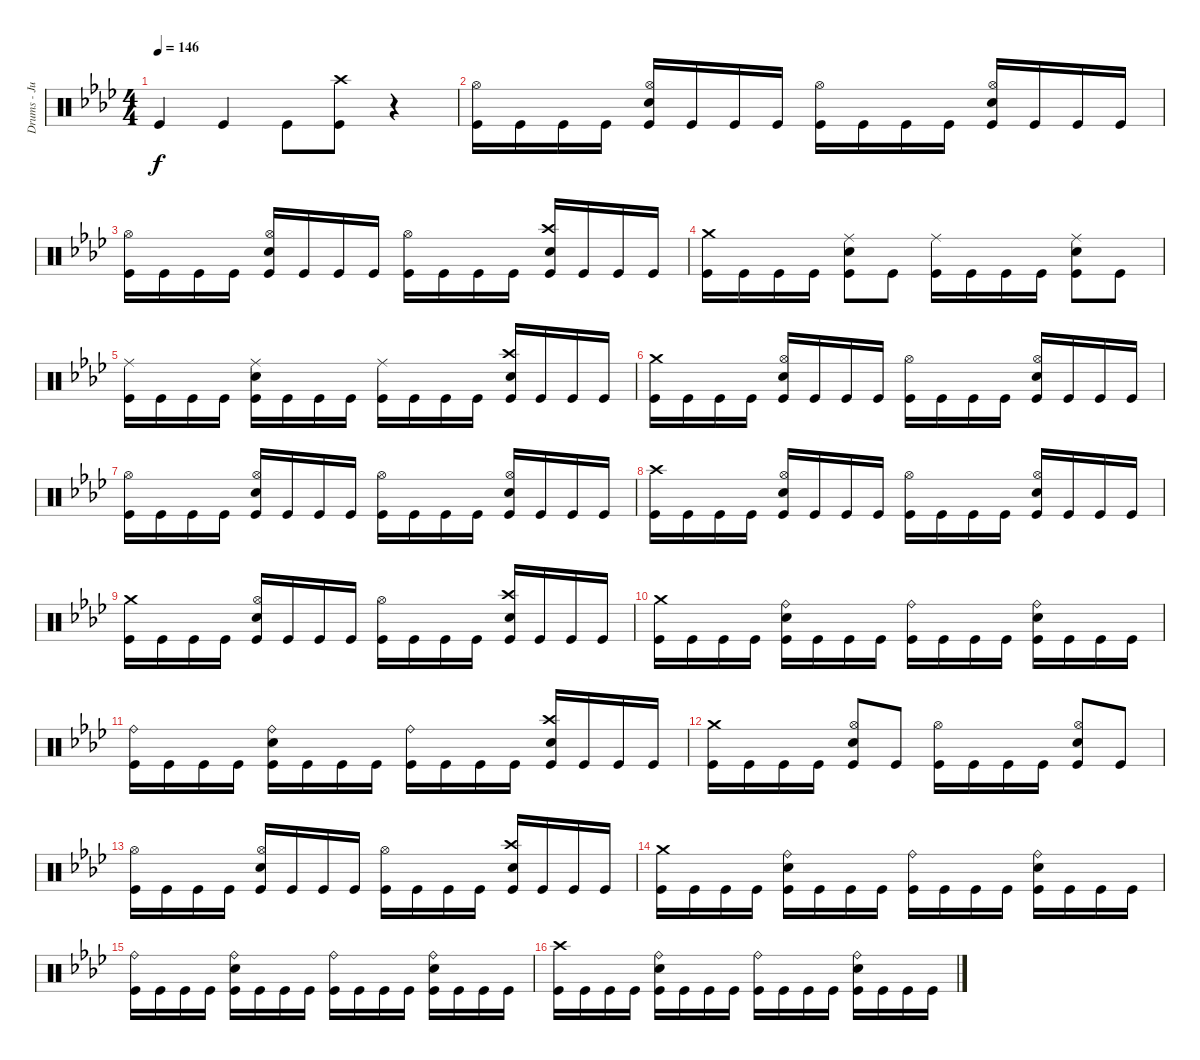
\track ("Drums - Jukka" "Drums - Ju") {instrument percussion}
\staff {score}
\articulation defaults
\ts (4 4)
\tempo 146
\clef neutral
\ks fminor "Kick (hit)".4{dy f} "Kick (hit)".4 "Kick (hit)".8
("Kick (hit)" "Crash high (hit)").8 r.4 |
("Kick (hit)" "Hi-Hat (open)").16 "Kick (hit)".16 "Kick (hit)".16 "Kick (hit)".16 ("Kick (hit)" "Snare (hit) 2" "Hi-Hat (open)").16 "Kick (hit)".16 "Kick (hit)".16 "Kick (hit)".16 ("Kick (hit)" "Hi-Hat (open)").16 "Kick (hit)".16 "Kick (hit)".16 "Kick (hit)".16 ("Kick (hit)" "Snare (hit) 2" "Hi-Hat (open)").16 "Kick (hit)".16 "Kick (hit)".16 "Kick (hit)".16 |
("Kick (hit)" "Hi-Hat (open)").16 "Kick (hit)".16 "Kick (hit)".16 "Kick (hit)".16 ("Kick (hit)" "Snare (hit) 2" "Hi-Hat (open)").16 "Kick (hit)".16 "Kick (hit)".16 "Kick (hit)".16 ("Kick (hit)" "Hi-Hat (open)").16 "Kick (hit)".16 "Kick (hit)".16 "Kick (hit)".16 ("Kick (hit)" "Snare (hit) 2" "Crash high (hit)").16 "Kick (hit)".16 "Kick (hit)".16 "Kick (hit)".16 |
("Kick (hit)" "Crash medium (hit)").16 "Kick (hit)".16 "Kick (hit)".16 "Kick (hit)".16 ("Kick (hit)" "Snare (hit) 2" "Ride (middle)").8 "Kick (hit)".8 ("Kick (hit)" "Ride (middle)").16 "Kick (hit)".16 "Kick (hit)".16 "Kick (hit)".16 ("Kick (hit)" "Snare (hit) 2" "Ride (middle)").8 "Kick (hit)".8 |
("Kick (hit)" "Ride (middle)").16 "Kick (hit)".16 "Kick (hit)".16 "Kick (hit)".16 ("Kick (hit)" "Snare (hit) 2" "Ride (middle)").16 "Kick (hit)".16 "Kick (hit)".16 "Kick (hit)".16 ("Kick (hit)" "Ride (middle)").16 "Kick (hit)".16 "Kick (hit)".16 "Kick (hit)".16 ("Kick (hit)" "Snare (hit) 2" "Crash high (hit)").16 "Kick (hit)".16 "Kick (hit)".16 "Kick (hit)".16 |
("Kick (hit)" "Crash medium (hit)").16 "Kick (hit)".16 "Kick (hit)".16 "Kick (hit)".16 ("Kick (hit)" "Snare (hit) 2" "Hi-Hat (open)").16 "Kick (hit)".16 "Kick (hit)".16 "Kick (hit)".16 ("Kick (hit)" "Hi-Hat (open)").16 "Kick (hit)".16 "Kick (hit)".16 "Kick (hit)".16 ("Kick (hit)" "Snare (hit) 2" "Hi-Hat (open)").16 "Kick (hit)".16 "Kick (hit)".16 "Kick (hit)".16 |
("Kick (hit)" "Hi-Hat (open)").16 "Kick (hit)".16 "Kick (hit)".16 "Kick (hit)".16 ("Kick (hit)" "Snare (hit) 2" "Hi-Hat (open)").16 "Kick (hit)".16 "Kick (hit)".16 "Kick (hit)".16 ("Kick (hit)" "Hi-Hat (open)").16 "Kick (hit)".16 "Kick (hit)".16 "Kick (hit)".16 ("Kick (hit)" "Snare (hit) 2" "Hi-Hat (open)").16 "Kick (hit)".16 "Kick (hit)".16 "Kick (hit)".16 |
("Kick (hit)" "Crash high (hit)").16 "Kick (hit)".16 "Kick (hit)".16 "Kick (hit)".16 ("Kick (hit)" "Snare (hit) 2" "Hi-Hat (open)").16 "Kick (hit)".16 "Kick (hit)".16 "Kick (hit)".16 ("Kick (hit)" "Hi-Hat (open)").16 "Kick (hit)".16 "Kick (hit)".16 "Kick (hit)".16 ("Kick (hit)" "Snare (hit) 2" "Hi-Hat (open)").16 "Kick (hit)".16 "Kick (hit)".16 "Kick (hit)".16 |
("Kick (hit)" "Crash medium (hit)").16 "Kick (hit)".16 "Kick (hit)".16 "Kick (hit)".16 ("Kick (hit)" "Snare (hit) 2" "Hi-Hat (open)").16 "Kick (hit)".16 "Kick (hit)".16 "Kick (hit)".16 ("Kick (hit)" "Hi-Hat (open)").16 "Kick (hit)".16 "Kick (hit)".16 "Kick (hit)".16 ("Kick (hit)" "Snare (hit) 2" "Crash high (hit)").16 "Kick (hit)".16 "Kick (hit)".16 "Kick (hit)".16 |
("Kick (hit)" "Crash medium (hit)").16 "Kick (hit)".16 "Kick (hit)".16 "Kick (hit)".16 ("Kick (hit)" "Snare (hit) 2" "Ride (bell)").16 "Kick (hit)".16 "Kick (hit)".16 "Kick (hit)".16 ("Kick (hit)" "Ride (bell)").16 "Kick (hit)".16 "Kick (hit)".16 "Kick (hit)".16 ("Kick (hit)" "Snare (hit) 2" "Ride (bell)").16 "Kick (hit)".16 "Kick (hit)".16 "Kick (hit)".16 |
("Kick (hit)" "Ride (bell)").16 "Kick (hit)".16 "Kick (hit)".16 "Kick (hit)".16 ("Kick (hit)" "Snare (hit) 2" "Ride (bell)").16 "Kick (hit)".16 "Kick (hit)".16 "Kick (hit)".16 ("Kick (hit)" "Ride (bell)").16 "Kick (hit)".16 "Kick (hit)".16 "Kick (hit)".16 ("Kick (hit)" "Snare (hit) 2" "Crash high (hit)").16 "Kick (hit)".16 "Kick (hit)".16 "Kick (hit)".16 |
("Kick (hit)" "Crash medium (hit)").16 "Kick (hit)".16 "Kick (hit)".16 "Kick (hit)".16 ("Kick (hit)" "Snare (hit) 2" "Hi-Hat (open)").8 "Kick (hit)".8 ("Kick (hit)" "Hi-Hat (open)").16 "Kick (hit)".16 "Kick (hit)".16 "Kick (hit)".16 ("Kick (hit)" "Snare (hit) 2" "Hi-Hat (open)").8 "Kick (hit)".8 |
("Kick (hit)" "Hi-Hat (open)").16 "Kick (hit)".16 "Kick (hit)".16 "Kick (hit)".16 ("Kick (hit)" "Snare (hit) 2" "Hi-Hat (open)").16 "Kick (hit)".16 "Kick (hit)".16 "Kick (hit)".16 ("Kick (hit)" "Hi-Hat (open)").16 "Kick (hit)".16 "Kick (hit)".16 "Kick (hit)".16 ("Kick (hit)" "Snare (hit) 2" "Crash high (hit)").16 "Kick (hit)".16 "Kick (hit)".16 "Kick (hit)".16 |
("Kick (hit)" "Crash medium (hit)").16 "Kick (hit)".16 "Kick (hit)".16 "Kick (hit)".16 ("Kick (hit)" "Snare (hit) 2" "Ride (bell)").16 "Kick (hit)".16 "Kick (hit)".16 "Kick (hit)".16 ("Kick (hit)" "Ride (bell)").16 "Kick (hit)".16 "Kick (hit)".16 "Kick (hit)".16 ("Kick (hit)" "Snare (hit) 2" "Ride (bell)").16 "Kick (hit)".16 "Kick (hit)".16 "Kick (hit)".16 |
("Kick (hit)" "Ride (bell)").16 "Kick (hit)".16 "Kick (hit)".16 "Kick (hit)".16 ("Kick (hit)" "Snare (hit) 2" "Ride (bell)").16 "Kick (hit)".16 "Kick (hit)".16 "Kick (hit)".16 ("Kick (hit)" "Ride (bell)").16 "Kick (hit)".16 "Kick (hit)".16 "Kick (hit)".16 ("Kick (hit)" "Snare (hit) 2" "Ride (bell)").16 "Kick (hit)".16 "Kick (hit)".16 "Kick (hit)".16 |
("Kick (hit)" "Crash high (hit)").16 "Kick (hit)".16 "Kick (hit)".16 "Kick (hit)".16 ("Kick (hit)" "Snare (hit) 2" "Ride (bell)").16 "Kick (hit)".16 "Kick (hit)".16 "Kick (hit)".16 ("Kick (hit)" "Ride (bell)").16 "Kick (hit)".16 "Kick (hit)".16 "Kick (hit)".16 ("Kick (hit)" "Snare (hit) 2" "Ride (bell)").16 "Kick (hit)".16 "Kick (hit)".16 "Kick (hit)".16
